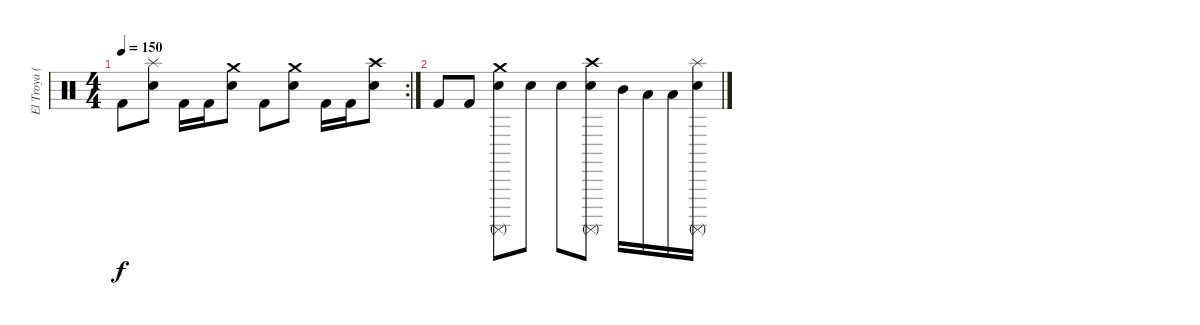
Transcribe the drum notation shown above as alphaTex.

\track ("El Troya (premio)" "El Troya (") {instrument percussion}
\staff {score}
\articulation defaults
\rc 2
\ts (4 4)
\tempo 150
\clef neutral
\ks c "Kick (hit) 2".8{dy f}
("Splash (hit)" "Snare (hit) 2").8 "Kick (hit) 2".16 "Kick (hit) 2".16 ("Crash medium (hit)" "Snare (hit) 2").8 "Kick (hit) 2".8 ("Crash medium (hit)" "Snare (hit) 2").8 "Kick (hit) 2".16 "Kick (hit) 2".16 ("Crash high (hit)" "Snare (hit) 2").8 |
"Kick (hit) 2".8 "Kick (hit) 2".8 ("Surdo (mute)" "Electric Snare (hit)" "Crash medium (hit)").8 "Snare (hit) 2".8 "Snare (hit) 2".8 ("Surdo (mute)" "Electric Snare (hit)" "Crash high (hit)").8 "Mid Tom (hit)".16 "Low Tom (hit)".16 "Low Floor Tom (hit)".16 ("Surdo (mute)" "Electric Snare (hit)" "Splash (hit)").16
